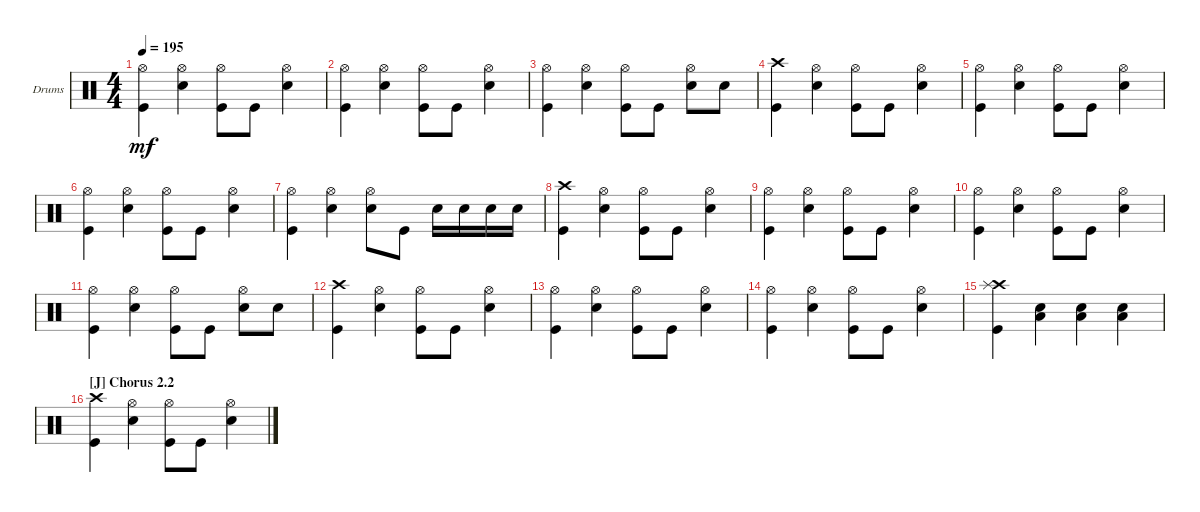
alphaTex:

\defaultSystemsLayout 4
\bracketExtendMode groupsimilarinstruments
\firstSystemTrackNameOrientation horizontal
\otherSystemsTrackNameOrientation horizontal
\track ("Drumkit" "Drums") {instrument percussion}
\staff {score}
\articulation defaults
\ts (4 4)
\tempo 195
\clef neutral
\ks c
("Kick (hit)" "Hi-Hat (open)").4{dy mf} ("Snare (hit) 2" "Hi-Hat (open)").4 ("Kick (hit)" "Hi-Hat (open)").8 "Kick (hit)".8 ("Snare (hit) 2" "Hi-Hat (open)").4 |
("Kick (hit)" "Hi-Hat (open)").4 ("Snare (hit) 2" "Hi-Hat (open)").4 ("Kick (hit)" "Hi-Hat (open)").8 "Kick (hit)".8 ("Snare (hit) 2" "Hi-Hat (open)").4 |
("Kick (hit)" "Hi-Hat (open)").4 ("Snare (hit) 2" "Hi-Hat (open)").4 ("Kick (hit)" "Hi-Hat (open)").8 "Kick (hit)".8 ("Snare (hit) 2" "Hi-Hat (open)").8 "Snare (hit) 2".8 |
("Kick (hit)" "Crash high (hit)").4 ("Snare (hit) 2" "Hi-Hat (open)").4 ("Kick (hit)" "Hi-Hat (open)").8 "Kick (hit)".8 ("Snare (hit) 2" "Hi-Hat (open)").4 |
("Kick (hit)" "Hi-Hat (open)").4 ("Snare (hit) 2" "Hi-Hat (open)").4 ("Kick (hit)" "Hi-Hat (open)").8 "Kick (hit)".8 ("Snare (hit) 2" "Hi-Hat (open)").4 |
("Kick (hit)" "Hi-Hat (open)").4 ("Snare (hit) 2" "Hi-Hat (open)").4 ("Kick (hit)" "Hi-Hat (open)").8 "Kick (hit)".8 ("Snare (hit) 2" "Hi-Hat (open)").4 |
("Kick (hit)" "Hi-Hat (open)").4 ("Snare (hit) 2" "Hi-Hat (open)").4 ("Hi-Hat (open)" "Snare (hit) 2").8 "Kick (hit)".8 "Snare (hit) 2".16 "Snare (hit) 2".16 "Snare (hit) 2".16 "Snare (hit) 2".16 |
("Kick (hit)" "Crash high (hit)").4 ("Snare (hit) 2" "Hi-Hat (open)").4 ("Kick (hit)" "Hi-Hat (open)").8 "Kick (hit)".8 ("Snare (hit) 2" "Hi-Hat (open)").4 |
("Kick (hit)" "Hi-Hat (open)").4 ("Snare (hit) 2" "Hi-Hat (open)").4 ("Kick (hit)" "Hi-Hat (open)").8 "Kick (hit)".8 ("Snare (hit) 2" "Hi-Hat (open)").4 |
("Kick (hit)" "Hi-Hat (open)").4 ("Snare (hit) 2" "Hi-Hat (open)").4 ("Kick (hit)" "Hi-Hat (open)").8 "Kick (hit)".8 ("Snare (hit) 2" "Hi-Hat (open)").4 |
("Kick (hit)" "Hi-Hat (open)").4 ("Snare (hit) 2" "Hi-Hat (open)").4 ("Kick (hit)" "Hi-Hat (open)").8 "Kick (hit)".8 ("Snare (hit) 2" "Hi-Hat (open)").8 "Snare (hit) 2".8 |
("Kick (hit)" "Crash high (hit)").4 ("Snare (hit) 2" "Hi-Hat (open)").4 ("Kick (hit)" "Hi-Hat (open)").8 "Kick (hit)".8 ("Snare (hit) 2" "Hi-Hat (open)").4 |
("Kick (hit)" "Hi-Hat (open)").4 ("Snare (hit) 2" "Hi-Hat (open)").4 ("Kick (hit)" "Hi-Hat (open)").8 "Kick (hit)".8 ("Snare (hit) 2" "Hi-Hat (open)").4 |
("Kick (hit)" "Hi-Hat (open)").4 ("Snare (hit) 2" "Hi-Hat (open)").4 ("Kick (hit)" "Hi-Hat (open)").8 "Kick (hit)".8 ("Snare (hit) 2" "Hi-Hat (open)").4 |
("Crash high (hit)" "Kick (hit)" "Splash (hit)").4 ("Low Tom (hit)" "Snare (hit) 2").4 ("Low Tom (hit)" "Snare (hit) 2").4 ("Low Tom (hit)" "Snare (hit) 2").4 |
\section ("J" "Chorus 2.2")
("Kick (hit)" "Crash high (hit)").4 ("Snare (hit) 2" "Hi-Hat (open)").4 ("Kick (hit)" "Hi-Hat (open)").8 "Kick (hit)".8 ("Snare (hit) 2" "Hi-Hat (open)").4
